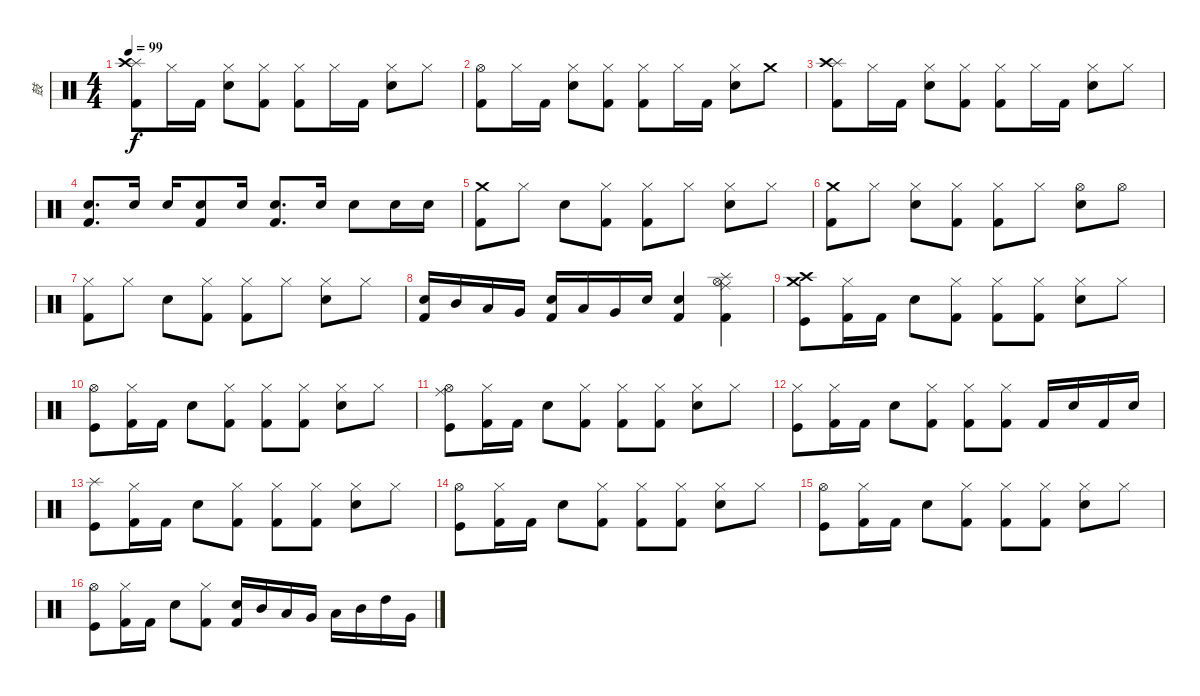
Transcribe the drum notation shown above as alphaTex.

\track ("鼓" "鼓") {instrument percussion}
\staff {score}
\articulation defaults
\ts (4 4)
\tempo 99
\clef neutral
\ks c
("Splash (hit)" "Crash high (hit)" "Kick (hit) 2").8{dy f} "Hi-Hat (closed)".16 "Kick (hit) 2".16 ("Hi-Hat (closed)" "Electric Snare (hit)").8 ("Hi-Hat (closed)" "Kick (hit) 2").8 ("Hi-Hat (closed)" "Kick (hit) 2").8 "Hi-Hat (closed)".16 "Kick (hit) 2".16 ("Hi-Hat (closed)" "Electric Snare (hit)").8 "Hi-Hat (closed)".8 |
("Hi-Hat (open)" "Kick (hit) 2").8 "Hi-Hat (closed)".16 "Kick (hit) 2".16 ("Hi-Hat (closed)" "Electric Snare (hit)").8 ("Hi-Hat (closed)" "Kick (hit) 2").8 ("Hi-Hat (closed)" "Kick (hit) 2").8 "Hi-Hat (closed)".16 "Kick (hit) 2".16 ("Hi-Hat (closed)" "Electric Snare (hit)").8 "Crash medium (hit)".8 |
("Splash (hit)" "Crash high (hit)" "Kick (hit) 2").8 "Hi-Hat (closed)".16 "Kick (hit) 2".16 ("Hi-Hat (closed)" "Electric Snare (hit)").8 ("Hi-Hat (closed)" "Kick (hit) 2").8 ("Hi-Hat (closed)" "Kick (hit) 2").8 "Hi-Hat (closed)".16 "Kick (hit) 2".16 ("Hi-Hat (closed)" "Electric Snare (hit)").8 "Hi-Hat (closed)".8 |
("Electric Snare (hit)" "Kick (hit) 2").8{d} "Electric Snare (hit)".16 "Electric Snare (hit)".16 ("Electric Snare (hit)" "Kick (hit) 2").8 "Electric Snare (hit)".16 ("Electric Snare (hit)" "Kick (hit) 2").8{d} "Electric Snare (hit)".16 "Electric Snare (hit)".8 "Electric Snare (hit)".16 "Electric Snare (hit)".16 |
("Crash medium (hit)" "Kick (hit) 2").8 "Hi-Hat (closed)".8 "Electric Snare (hit)".8 ("Hi-Hat (closed)" "Kick (hit) 2").8 ("Hi-Hat (closed)" "Kick (hit) 2").8 "Hi-Hat (closed)".8 ("Hi-Hat (closed)" "Electric Snare (hit)").8 "Hi-Hat (closed)".8 |
("Crash medium (hit)" "Kick (hit) 2").8 "Hi-Hat (closed)".8 ("Hi-Hat (closed)" "Electric Snare (hit)").8 ("Hi-Hat (closed)" "Kick (hit) 2").8 ("Hi-Hat (closed)" "Kick (hit) 2").8 "Hi-Hat (closed)".8 ("Hi-Hat (open)" "Electric Snare (hit)").8 "Hi-Hat (open)".8 |
("Hi-Hat (closed)" "Kick (hit) 2").8 "Hi-Hat (closed)".8 "Electric Snare (hit)".8 ("Hi-Hat (closed)" "Kick (hit) 2").8 ("Hi-Hat (closed)" "Kick (hit) 2").8 "Hi-Hat (closed)".8 ("Hi-Hat (closed)" "Electric Snare (hit)").8 "Hi-Hat (closed)".8 |
("Electric Snare (hit)" "Kick (hit) 2").16 "Mid Tom (hit)".16 "Low Tom (hit)".16 "Very Low Tom (hit)".16 ("Electric Snare (hit)" "Kick (hit) 2").16 "Low Tom (hit)".16 "Very Low Tom (hit)".16 "Electric Snare (hit)".16 ("Electric Snare (hit)" "Kick (hit) 2").4 ("Splash (hit)" "Ride (middle)" "Hi-Hat (open)" "Kick (hit) 2").4 |
("Crash medium (hit)" "Crash high (hit)" "Kick (hit)").8 ("Hi-Hat (closed)" "Kick (hit) 2").16 "Kick (hit) 2".16 "Electric Snare (hit)".8 ("Hi-Hat (closed)" "Kick (hit) 2").8 ("Hi-Hat (closed)" "Kick (hit) 2").8 ("Hi-Hat (closed)" "Kick (hit) 2").8 ("Hi-Hat (closed)" "Electric Snare (hit)").8 "Hi-Hat (closed)".8 |
("Hi-Hat (open)" "Kick (hit)").8 ("Hi-Hat (closed)" "Kick (hit) 2").16 "Kick (hit) 2".16 "Electric Snare (hit)".8 ("Hi-Hat (closed)" "Kick (hit) 2").8 ("Hi-Hat (closed)" "Kick (hit) 2").8 ("Hi-Hat (closed)" "Kick (hit) 2").8 ("Hi-Hat (closed)" "Electric Snare (hit)").8 "Hi-Hat (closed)".8 |
("Ride (middle)" "Hi-Hat (open)" "Kick (hit)").8 ("Hi-Hat (closed)" "Kick (hit) 2").16 "Kick (hit) 2".16 "Electric Snare (hit)".8 ("Hi-Hat (closed)" "Kick (hit) 2").8 ("Hi-Hat (closed)" "Kick (hit) 2").8 ("Hi-Hat (closed)" "Kick (hit) 2").8 ("Hi-Hat (closed)" "Electric Snare (hit)").8 "Hi-Hat (closed)".8 |
("Hi-Hat (closed)" "Kick (hit)").8 ("Hi-Hat (closed)" "Kick (hit) 2").16 "Kick (hit) 2".16 "Electric Snare (hit)".8 ("Hi-Hat (closed)" "Kick (hit) 2").8 ("Hi-Hat (closed)" "Kick (hit) 2").8 ("Hi-Hat (closed)" "Kick (hit) 2").8 "Kick (hit) 2".16 "Electric Snare (hit)".16 "Kick (hit) 2".16 "Electric Snare (hit)".16 |
("Splash (hit)" "Kick (hit)").8 ("Hi-Hat (closed)" "Kick (hit) 2").16 "Kick (hit) 2".16 "Electric Snare (hit)".8 ("Hi-Hat (closed)" "Kick (hit) 2").8 ("Hi-Hat (closed)" "Kick (hit) 2").8 ("Hi-Hat (closed)" "Kick (hit) 2").8 ("Hi-Hat (closed)" "Electric Snare (hit)").8 "Hi-Hat (closed)".8 |
("Hi-Hat (open)" "Kick (hit)").8 ("Hi-Hat (closed)" "Kick (hit) 2").16 "Kick (hit) 2".16 "Electric Snare (hit)".8 ("Hi-Hat (closed)" "Kick (hit) 2").8 ("Hi-Hat (closed)" "Kick (hit) 2").8 ("Hi-Hat (closed)" "Kick (hit) 2").8 ("Hi-Hat (closed)" "Electric Snare (hit)").8 "Hi-Hat (closed)".8 |
("Hi-Hat (open)" "Kick (hit)").8 ("Hi-Hat (closed)" "Kick (hit) 2").16 "Kick (hit) 2".16 "Electric Snare (hit)".8 ("Hi-Hat (closed)" "Kick (hit) 2").8 ("Hi-Hat (closed)" "Kick (hit) 2").8 ("Hi-Hat (closed)" "Kick (hit) 2").8 ("Hi-Hat (closed)" "Electric Snare (hit)").8 "Hi-Hat (closed)".8 |
("Hi-Hat (open)" "Kick (hit)").8 ("Hi-Hat (closed)" "Kick (hit) 2").16 "Kick (hit) 2".16 "Electric Snare (hit)".8 ("Hi-Hat (closed)" "Kick (hit) 2").8 ("Electric Snare (hit)" "Kick (hit) 2").16 "Mid Tom (hit)".16 "Low Tom (hit)".16 "Very Low Tom (hit)".16 "Low Tom (hit)".16 "Mid Tom (hit)".16 "High Tom (hit)".16 "Very Low Tom (hit)".16
